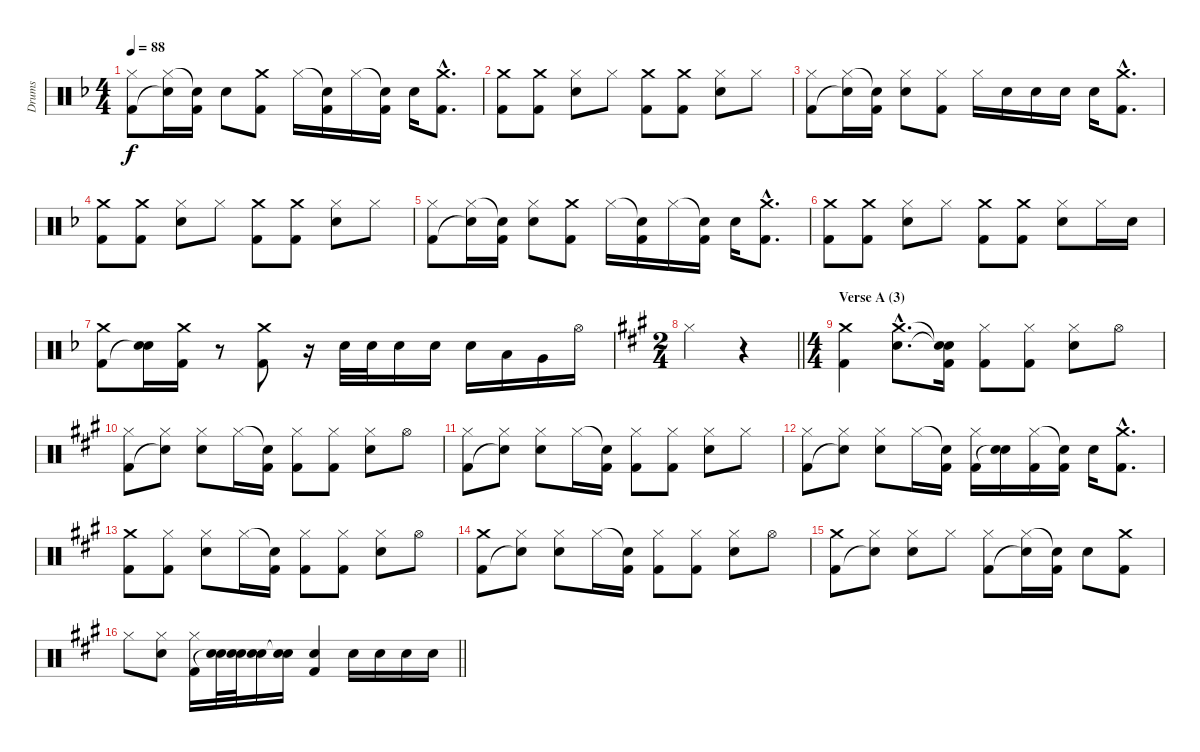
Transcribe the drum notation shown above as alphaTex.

\track ("Drums" "Drums") {instrument percussion}
\staff {score}
\articulation defaults
\ts (4 4)
\tempo 88
\clef neutral
\ks dminor
("Hi-Hat (closed)" "Kick (hit) 2").8{dy f} ("Hi-Hat (closed)" "Snare (hit)"{t}).16 ("Snare (hit)"{t} "Kick (hit) 2").16 "Electric Snare (hit)".8 ("Crash medium (hit)" "Kick (hit) 2").8 "Hi-Hat (closed)".16 ("Snare (hit)"{t} "Kick (hit) 2").16 "Hi-Hat (closed)".16 ("Snare (hit)"{t} "Kick (hit) 2").16 "Electric Snare (hit)".16 ("Crash medium (hit)"{hac} "Kick (hit) 2"{hac}).8{d} |
("Crash medium (hit)" "Kick (hit) 2").8 ("Crash medium (hit)" "Kick (hit) 2").8 ("Hi-Hat (closed)" "Electric Snare (hit)").8 "Hi-Hat (closed)".8 ("Crash medium (hit)" "Kick (hit) 2").8 ("Crash medium (hit)" "Kick (hit) 2").8 ("Hi-Hat (closed)" "Electric Snare (hit)").8 "Hi-Hat (closed)".8 |
("Hi-Hat (closed)" "Kick (hit) 2").8 ("Hi-Hat (closed)" "Snare (hit)"{t}).16 ("Snare (hit)"{t} "Kick (hit) 2").16 ("Hi-Hat (closed)" "Electric Snare (hit)").8 ("Hi-Hat (closed)" "Kick (hit) 2").8 "Hi-Hat (closed)".16 "Electric Snare (hit)".16 "Electric Snare (hit)".16 "Electric Snare (hit)".16 "Electric Snare (hit)".16 ("Crash medium (hit)"{hac} "Kick (hit) 2"{hac}).8{d} |
("Crash medium (hit)" "Kick (hit) 2").8 ("Crash medium (hit)" "Kick (hit) 2").8 ("Hi-Hat (closed)" "Electric Snare (hit)").8 "Hi-Hat (closed)".8 ("Crash medium (hit)" "Kick (hit) 2").8 ("Crash medium (hit)" "Kick (hit) 2").8 ("Hi-Hat (closed)" "Electric Snare (hit)").8 "Hi-Hat (closed)".8 |
("Hi-Hat (closed)" "Kick (hit) 2").8 ("Hi-Hat (closed)" "Snare (hit)"{t}).16 ("Snare (hit)"{t} "Kick (hit) 2").16 ("Hi-Hat (closed)" "Electric Snare (hit)").8 ("Crash medium (hit)" "Kick (hit) 2").8 "Hi-Hat (closed)".16 ("Snare (hit)"{t} "Kick (hit) 2").16 "Hi-Hat (closed)".16 ("Snare (hit)"{t} "Kick (hit) 2").16 "Electric Snare (hit)".16 ("Crash medium (hit)"{hac} "Kick (hit) 2"{hac}).8{d} |
("Crash medium (hit)" "Kick (hit) 2").8 ("Crash medium (hit)" "Kick (hit) 2").8 ("Hi-Hat (closed)" "Electric Snare (hit)").8 "Hi-Hat (closed)".8 ("Crash medium (hit)" "Kick (hit) 2").8 ("Crash medium (hit)" "Kick (hit) 2").8 ("Hi-Hat (closed)" "Electric Snare (hit)").8 "Hi-Hat (closed)".16 "Electric Snare (hit)".16 |
("Crash medium (hit)" "Kick (hit) 2").8 ("Electric Snare (hit)" "Snare (hit)"{t}).16 ("Crash medium (hit)" "Kick (hit) 2").16 r.8 ("Crash medium (hit)" "Kick (hit) 2").8 r.16 "Electric Snare (hit)".32 "Electric Snare (hit)".32 "Electric Snare (hit)".16 "Electric Snare (hit)".16 "Electric Snare (hit)".16 "Low Tom (hit)".16 "Very Low Tom (hit)".16 "Hi-Hat (open)".16 |
\ts (2 4)
\barLineRight lightlight
\ks f#minor "Hi-Hat (closed)".4
r.4 |
\ts (4 4)
\section ("" "Verse A (3)")
("Crash medium (hit)" "Kick (hit) 2").4 ("Crash medium (hit)"{hac} "Electric Snare (hit)"{hac}).8{d} ("Snare (hit)"{t} "Snare (hit)"{t} "Kick (hit) 2").16 ("Hi-Hat (closed)" "Kick (hit) 2").8 ("Hi-Hat (closed)" "Kick (hit) 2").8 ("Hi-Hat (closed)" "Electric Snare (hit)").8 "Hi-Hat (open)".8 |
("Hi-Hat (closed)" "Kick (hit) 2").8 ("Hi-Hat (closed)" "Snare (hit)"{t}).8 ("Hi-Hat (closed)" "Electric Snare (hit)").8 "Hi-Hat (closed)".16 ("Snare (hit)"{t} "Kick (hit) 2").16 ("Hi-Hat (closed)" "Kick (hit) 2").8 ("Hi-Hat (closed)" "Kick (hit) 2").8 ("Hi-Hat (closed)" "Electric Snare (hit)").8 "Hi-Hat (open)".8 |
("Hi-Hat (closed)" "Kick (hit) 2").8 ("Hi-Hat (closed)" "Snare (hit)"{t}).8 ("Hi-Hat (closed)" "Electric Snare (hit)").8 "Hi-Hat (closed)".16 ("Snare (hit)"{t} "Kick (hit) 2").16 ("Hi-Hat (closed)" "Kick (hit) 2").8 ("Hi-Hat (closed)" "Kick (hit) 2").8 ("Hi-Hat (closed)" "Electric Snare (hit)").8 "Hi-Hat (closed)".8 |
("Hi-Hat (closed)" "Kick (hit) 2").8 ("Hi-Hat (closed)" "Snare (hit)"{t}).8 ("Hi-Hat (closed)" "Electric Snare (hit)").8 "Hi-Hat (closed)".16 ("Snare (hit)"{t} "Kick (hit) 2").16 ("Hi-Hat (closed)" "Kick (hit) 2").16 ("Electric Snare (hit)" "Snare (hit)"{t}).16 ("Hi-Hat (closed)" "Kick (hit) 2").16 ("Snare (hit)"{t} "Kick (hit) 2").16 "Electric Snare (hit)".16 ("Crash medium (hit)"{hac} "Kick (hit) 2"{hac}).8{d} |
("Crash medium (hit)" "Kick (hit) 2").8 ("Hi-Hat (closed)" "Kick (hit) 2").8 ("Hi-Hat (closed)" "Electric Snare (hit)").8 "Hi-Hat (closed)".16 ("Snare (hit)"{t} "Kick (hit) 2").16 ("Hi-Hat (closed)" "Kick (hit) 2").8 ("Hi-Hat (closed)" "Kick (hit) 2").8 ("Hi-Hat (closed)" "Electric Snare (hit)").8 "Hi-Hat (open)".8 |
("Crash medium (hit)" "Kick (hit) 2").8 ("Hi-Hat (closed)" "Snare (hit)"{t}).8 ("Hi-Hat (closed)" "Electric Snare (hit)").8 "Hi-Hat (closed)".16 ("Snare (hit)"{t} "Kick (hit) 2").16 ("Hi-Hat (closed)" "Kick (hit) 2").8 ("Hi-Hat (closed)" "Kick (hit) 2").8 ("Hi-Hat (closed)" "Electric Snare (hit)").8 "Hi-Hat (open)".8 |
("Crash medium (hit)" "Kick (hit) 2").8 ("Hi-Hat (closed)" "Snare (hit)"{t}).8 ("Hi-Hat (closed)" "Electric Snare (hit)").8 "Hi-Hat (closed)".8 ("Hi-Hat (closed)" "Kick (hit) 2").8 ("Hi-Hat (closed)" "Snare (hit)"{t}).16 ("Snare (hit)"{t} "Kick (hit) 2").16 "Electric Snare (hit)".8 ("Crash medium (hit)" "Kick (hit) 2").8 |
\barLineRight lightlight "Hi-Hat (closed)".8
("Hi-Hat (closed)" "Electric Snare (hit)").8 ("Hi-Hat (closed)" "Kick (hit) 2").16 ("Electric Snare (hit)" "Snare (hit)"{t}).32 ("Electric Snare (hit)" "Snare (hit)"{t}).32 ("Electric Snare (hit)" "Snare (hit)"{t}).16 ("Electric Snare (hit)" "Snare (hit)"{t}).16 ("Electric Snare (hit)" "Kick (hit) 2").4 "Electric Snare (hit)".16 "Electric Snare (hit)".16 "Electric Snare (hit)".16 "Electric Snare (hit)".16
